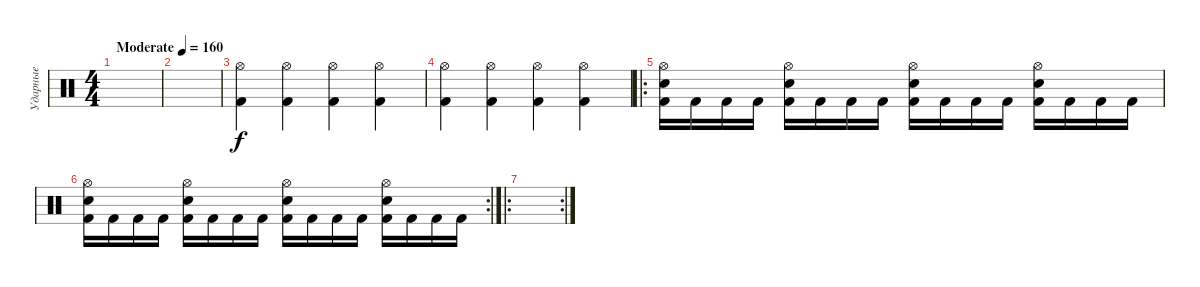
\track ("Ударные" "Ударные") {instrument percussion}
\staff {score}
\articulation defaults
\ts (4 4)
\tempo (160 "Moderate")
\clef neutral
\ks c
|
|
("Hi-Hat (open)" "Kick (hit) 2").4 ("Hi-Hat (open)" "Kick (hit) 2").4 ("Hi-Hat (open)" "Kick (hit) 2").4 ("Hi-Hat (open)" "Kick (hit) 2").4 |
("Hi-Hat (open)" "Kick (hit) 2").4 ("Hi-Hat (open)" "Kick (hit) 2").4 ("Hi-Hat (open)" "Kick (hit) 2").4 ("Hi-Hat (open)" "Kick (hit) 2").4 |
\ro
("Kick (hit) 2" "Hi-Hat (open)" "Electric Snare (hit)").16 "Kick (hit) 2".16 "Kick (hit) 2".16 "Kick (hit) 2".16 ("Kick (hit) 2" "Hi-Hat (open)" "Electric Snare (hit)").16 "Kick (hit) 2".16 "Kick (hit) 2".16 "Kick (hit) 2".16 ("Kick (hit) 2" "Hi-Hat (open)" "Electric Snare (hit)").16 "Kick (hit) 2".16 "Kick (hit) 2".16 "Kick (hit) 2".16 ("Kick (hit) 2" "Hi-Hat (open)" "Electric Snare (hit)").16 "Kick (hit) 2".16 "Kick (hit) 2".16 "Kick (hit) 2".16 |
\rc 2
("Kick (hit) 2" "Hi-Hat (open)" "Electric Snare (hit)").16 "Kick (hit) 2".16 "Kick (hit) 2".16 "Kick (hit) 2".16 ("Kick (hit) 2" "Hi-Hat (open)" "Electric Snare (hit)").16 "Kick (hit) 2".16 "Kick (hit) 2".16 "Kick (hit) 2".16 ("Kick (hit) 2" "Hi-Hat (open)" "Electric Snare (hit)").16 "Kick (hit) 2".16 "Kick (hit) 2".16 "Kick (hit) 2".16 ("Kick (hit) 2" "Hi-Hat (open)" "Electric Snare (hit)").16 "Kick (hit) 2".16 "Kick (hit) 2".16 "Kick (hit) 2".16 |
\ro
\rc 2
